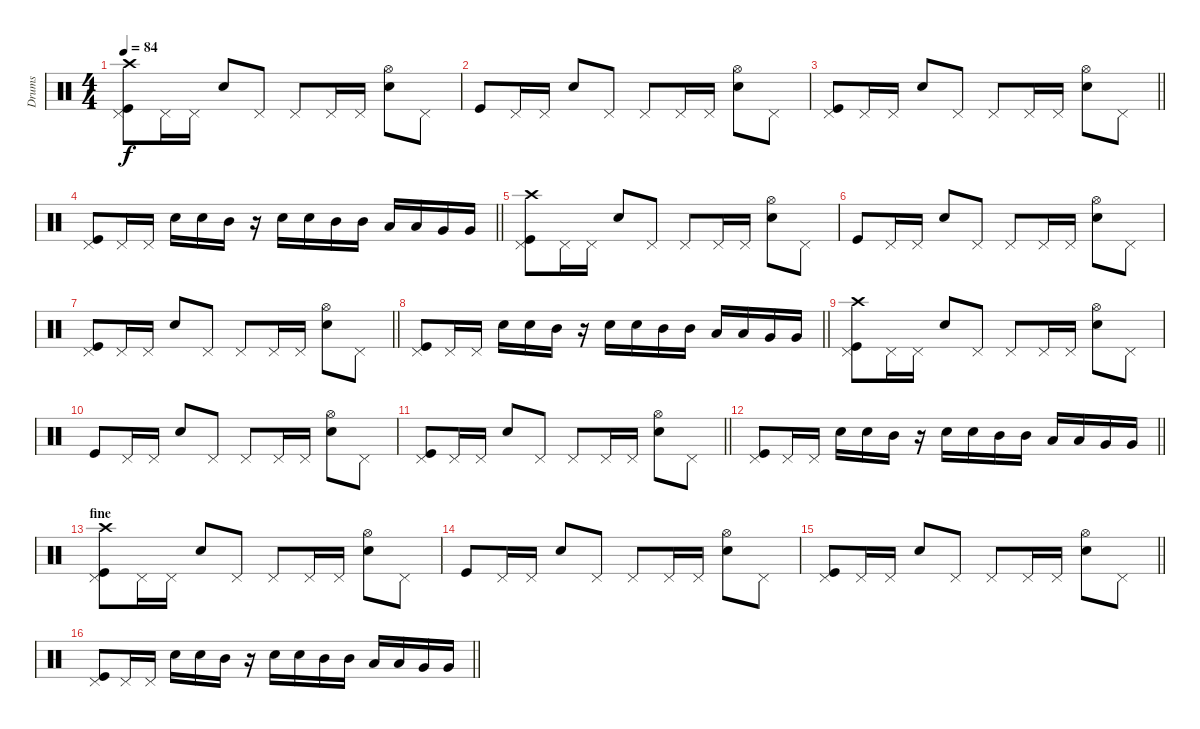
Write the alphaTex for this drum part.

\track ("Drums" "Drums") {instrument percussion}
\staff {score}
\articulation defaults
\ts (4 4)
\tempo 84
\clef neutral
\ks c
("Pedal Hi-Hat (hit)" "Kick (hit)" "Crash high (hit)").8{dy f} "Pedal Hi-Hat (hit)".16 "Pedal Hi-Hat (hit)".16 "Snare (hit) 2".8 "Pedal Hi-Hat (hit)".8 "Pedal Hi-Hat (hit)".8 "Pedal Hi-Hat (hit)".16 "Pedal Hi-Hat (hit)".16 ("Hi-Hat (open)" "Snare (hit) 2").8 "Pedal Hi-Hat (hit)".8 |
"Kick (hit)".8 "Pedal Hi-Hat (hit)".16 "Pedal Hi-Hat (hit)".16 "Snare (hit) 2".8 "Pedal Hi-Hat (hit)".8 "Pedal Hi-Hat (hit)".8 "Pedal Hi-Hat (hit)".16 "Pedal Hi-Hat (hit)".16 ("Hi-Hat (open)" "Snare (hit) 2").8 "Pedal Hi-Hat (hit)".8 |
\barLineRight lightlight
("Pedal Hi-Hat (hit)" "Kick (hit)").8 "Pedal Hi-Hat (hit)".16 "Pedal Hi-Hat (hit)".16 "Snare (hit) 2".8 "Pedal Hi-Hat (hit)".8 "Pedal Hi-Hat (hit)".8 "Pedal Hi-Hat (hit)".16 "Pedal Hi-Hat (hit)".16 ("Hi-Hat (open)" "Snare (hit) 2").8 "Pedal Hi-Hat (hit)".8 |
\barLineRight lightlight
("Pedal Hi-Hat (hit)" "Kick (hit)").8 "Pedal Hi-Hat (hit)".16 "Pedal Hi-Hat (hit)".16 "Snare (hit) 2".16 "Snare (hit) 2".16 "Mid Tom (hit)".16 r.16 "Snare (hit) 2".16 "Snare (hit) 2".16 "Mid Tom (hit)".16 "Mid Tom (hit)".16 "Low Tom (hit)".16 "Low Tom (hit)".16 "Very Low Tom (hit)".16 "Very Low Tom (hit)".16 |
("Pedal Hi-Hat (hit)" "Kick (hit)" "Crash high (hit)").8 "Pedal Hi-Hat (hit)".16 "Pedal Hi-Hat (hit)".16 "Snare (hit) 2".8 "Pedal Hi-Hat (hit)".8 "Pedal Hi-Hat (hit)".8 "Pedal Hi-Hat (hit)".16 "Pedal Hi-Hat (hit)".16 ("Hi-Hat (open)" "Snare (hit) 2").8 "Pedal Hi-Hat (hit)".8 |
"Kick (hit)".8 "Pedal Hi-Hat (hit)".16 "Pedal Hi-Hat (hit)".16 "Snare (hit) 2".8 "Pedal Hi-Hat (hit)".8 "Pedal Hi-Hat (hit)".8 "Pedal Hi-Hat (hit)".16 "Pedal Hi-Hat (hit)".16 ("Hi-Hat (open)" "Snare (hit) 2").8 "Pedal Hi-Hat (hit)".8 |
\barLineRight lightlight
("Pedal Hi-Hat (hit)" "Kick (hit)").8 "Pedal Hi-Hat (hit)".16 "Pedal Hi-Hat (hit)".16 "Snare (hit) 2".8 "Pedal Hi-Hat (hit)".8 "Pedal Hi-Hat (hit)".8 "Pedal Hi-Hat (hit)".16 "Pedal Hi-Hat (hit)".16 ("Hi-Hat (open)" "Snare (hit) 2").8 "Pedal Hi-Hat (hit)".8 |
\barLineRight lightlight
("Pedal Hi-Hat (hit)" "Kick (hit)").8 "Pedal Hi-Hat (hit)".16 "Pedal Hi-Hat (hit)".16 "Snare (hit) 2".16 "Snare (hit) 2".16 "Mid Tom (hit)".16 r.16 "Snare (hit) 2".16 "Snare (hit) 2".16 "Mid Tom (hit)".16 "Mid Tom (hit)".16 "Low Tom (hit)".16 "Low Tom (hit)".16 "Very Low Tom (hit)".16 "Very Low Tom (hit)".16 |
("Pedal Hi-Hat (hit)" "Kick (hit)" "Crash high (hit)").8 "Pedal Hi-Hat (hit)".16 "Pedal Hi-Hat (hit)".16 "Snare (hit) 2".8 "Pedal Hi-Hat (hit)".8 "Pedal Hi-Hat (hit)".8 "Pedal Hi-Hat (hit)".16 "Pedal Hi-Hat (hit)".16 ("Hi-Hat (open)" "Snare (hit) 2").8 "Pedal Hi-Hat (hit)".8 |
"Kick (hit)".8 "Pedal Hi-Hat (hit)".16 "Pedal Hi-Hat (hit)".16 "Snare (hit) 2".8 "Pedal Hi-Hat (hit)".8 "Pedal Hi-Hat (hit)".8 "Pedal Hi-Hat (hit)".16 "Pedal Hi-Hat (hit)".16 ("Hi-Hat (open)" "Snare (hit) 2").8 "Pedal Hi-Hat (hit)".8 |
\barLineRight lightlight
("Pedal Hi-Hat (hit)" "Kick (hit)").8 "Pedal Hi-Hat (hit)".16 "Pedal Hi-Hat (hit)".16 "Snare (hit) 2".8 "Pedal Hi-Hat (hit)".8 "Pedal Hi-Hat (hit)".8 "Pedal Hi-Hat (hit)".16 "Pedal Hi-Hat (hit)".16 ("Hi-Hat (open)" "Snare (hit) 2").8 "Pedal Hi-Hat (hit)".8 |
\barLineRight lightlight
("Pedal Hi-Hat (hit)" "Kick (hit)").8 "Pedal Hi-Hat (hit)".16 "Pedal Hi-Hat (hit)".16 "Snare (hit) 2".16 "Snare (hit) 2".16 "Mid Tom (hit)".16 r.16 "Snare (hit) 2".16 "Snare (hit) 2".16 "Mid Tom (hit)".16 "Mid Tom (hit)".16 "Low Tom (hit)".16 "Low Tom (hit)".16 "Very Low Tom (hit)".16 "Very Low Tom (hit)".16 |
\section ("" "fine")
("Pedal Hi-Hat (hit)" "Kick (hit)" "Crash high (hit)").8 "Pedal Hi-Hat (hit)".16 "Pedal Hi-Hat (hit)".16 "Snare (hit) 2".8 "Pedal Hi-Hat (hit)".8 "Pedal Hi-Hat (hit)".8 "Pedal Hi-Hat (hit)".16 "Pedal Hi-Hat (hit)".16 ("Hi-Hat (open)" "Snare (hit) 2").8 "Pedal Hi-Hat (hit)".8 |
"Kick (hit)".8 "Pedal Hi-Hat (hit)".16 "Pedal Hi-Hat (hit)".16 "Snare (hit) 2".8 "Pedal Hi-Hat (hit)".8 "Pedal Hi-Hat (hit)".8 "Pedal Hi-Hat (hit)".16 "Pedal Hi-Hat (hit)".16 ("Hi-Hat (open)" "Snare (hit) 2").8 "Pedal Hi-Hat (hit)".8 |
\barLineRight lightlight
("Pedal Hi-Hat (hit)" "Kick (hit)").8 "Pedal Hi-Hat (hit)".16 "Pedal Hi-Hat (hit)".16 "Snare (hit) 2".8 "Pedal Hi-Hat (hit)".8 "Pedal Hi-Hat (hit)".8 "Pedal Hi-Hat (hit)".16 "Pedal Hi-Hat (hit)".16 ("Hi-Hat (open)" "Snare (hit) 2").8 "Pedal Hi-Hat (hit)".8 |
\barLineRight lightlight
("Pedal Hi-Hat (hit)" "Kick (hit)").8 "Pedal Hi-Hat (hit)".16 "Pedal Hi-Hat (hit)".16 "Snare (hit) 2".16 "Snare (hit) 2".16 "Mid Tom (hit)".16 r.16 "Snare (hit) 2".16 "Snare (hit) 2".16 "Mid Tom (hit)".16 "Mid Tom (hit)".16 "Low Tom (hit)".16 "Low Tom (hit)".16 "Very Low Tom (hit)".16 "Very Low Tom (hit)".16
